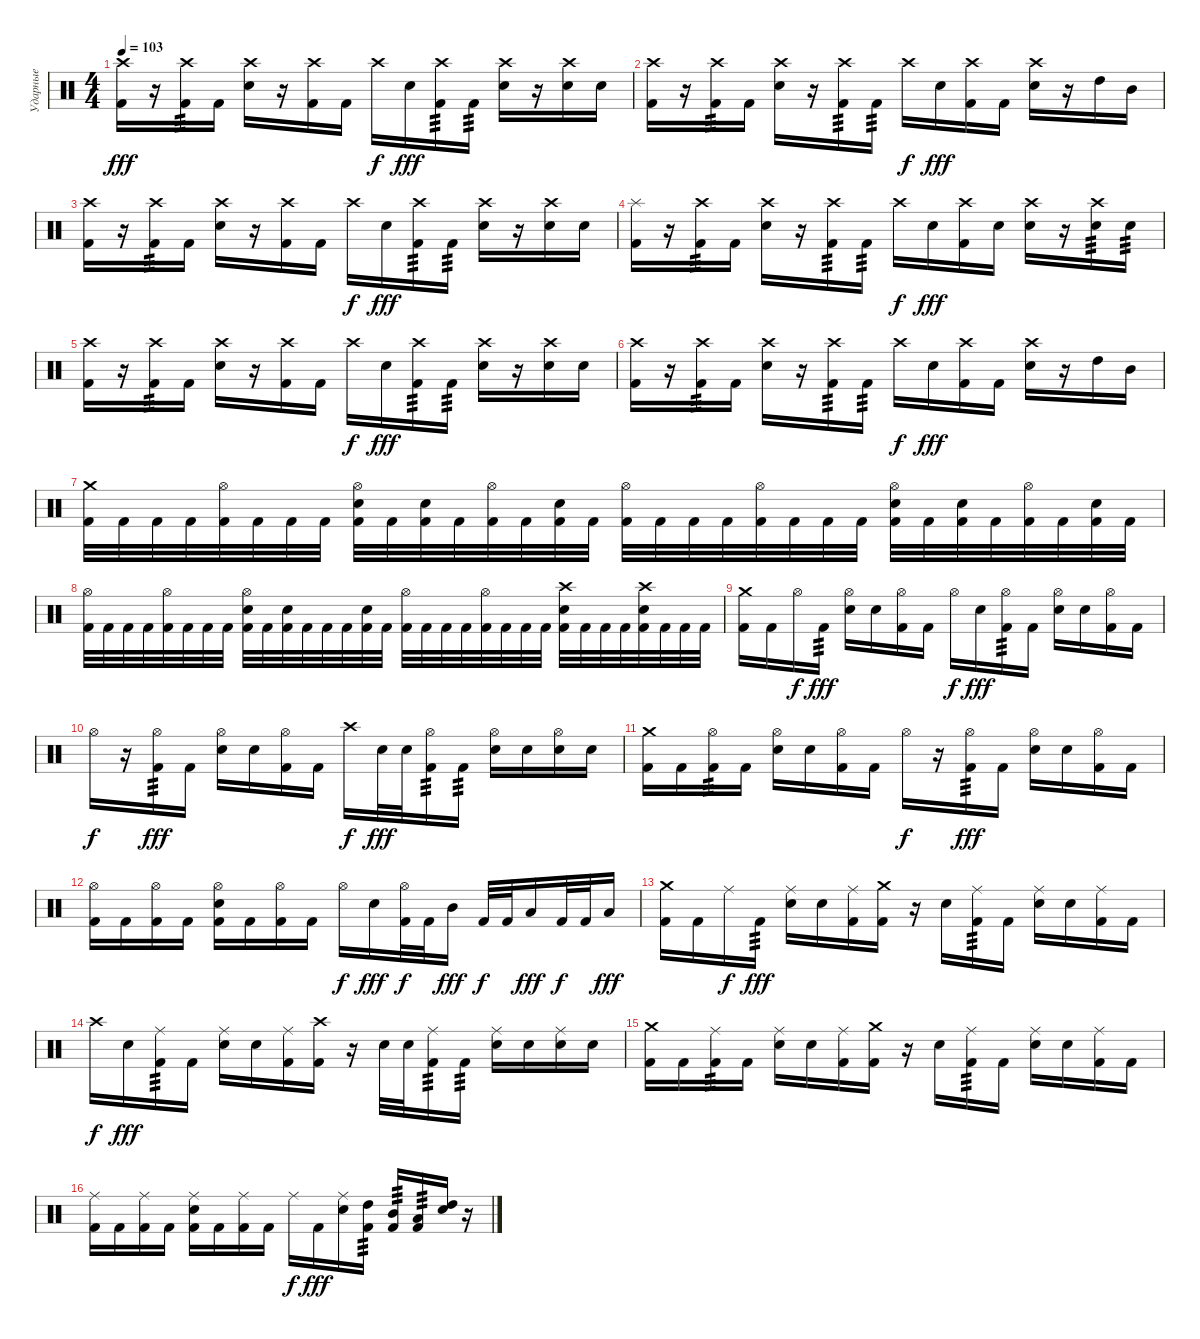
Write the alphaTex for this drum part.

\track ("Ударные" "Ударные") {instrument percussion}
\staff {score}
\articulation defaults
\ts (4 4)
\tempo 103
\clef neutral
\ks c
("Crash high (hit)" "Kick (hit) 2").16{dy fff} r.16 ("Crash high (hit)" "Kick (hit) 2").16{tp 3} "Kick (hit) 2".16 ("Crash high (hit)" "Snare (hit) 2").16 r.16 ("Crash high (hit)" "Kick (hit) 2").16 "Kick (hit) 2".16 "Crash high (hit)".16{dy f} "Snare (hit) 2".16{dy fff} ("Crash high (hit)" "Kick (hit) 2").16{tp 3} "Kick (hit) 2".16{tp 3} ("Crash high (hit)" "Snare (hit) 2").16 r.16 ("Crash high (hit)" "Snare (hit) 2").16 "Snare (hit) 2".16 |
("Crash high (hit)" "Kick (hit) 2").16 r.16 ("Crash high (hit)" "Kick (hit) 2").16{tp 3} "Kick (hit) 2".16 ("Crash high (hit)" "Snare (hit) 2").16 r.16 ("Crash high (hit)" "Kick (hit) 2").16{tp 3} "Kick (hit) 2".16{tp 3} "Crash high (hit)".16{dy f} "Snare (hit) 2".16{dy fff} ("Crash high (hit)" "Kick (hit) 2").16 "Kick (hit) 2".16 ("Crash high (hit)" "Snare (hit) 2").16 r.16 "High Tom (hit)".16 "Mid Tom (hit)".16 |
("Crash high (hit)" "Kick (hit) 2").16 r.16 ("Crash high (hit)" "Kick (hit) 2").16{tp 3} "Kick (hit) 2".16 ("Crash high (hit)" "Snare (hit) 2").16 r.16 ("Crash high (hit)" "Kick (hit) 2").16 "Kick (hit) 2".16 "Crash high (hit)".16{dy f} "Snare (hit) 2".16{dy fff} ("Crash high (hit)" "Kick (hit) 2").16{tp 3} "Kick (hit) 2".16{tp 3} ("Crash high (hit)" "Snare (hit) 2").16 r.16 ("Crash high (hit)" "Snare (hit) 2").16 "Snare (hit) 2".16 |
("Splash (hit)" "Kick (hit) 2").16 r.16 ("Crash high (hit)" "Kick (hit) 2").16{tp 3} "Kick (hit) 2".16 ("Crash high (hit)" "Snare (hit) 2").16 r.16 ("Crash high (hit)" "Kick (hit) 2").16{tp 3} "Kick (hit) 2".16{tp 3} "Crash high (hit)".16{dy f} "Snare (hit) 2".16{dy fff} ("Crash high (hit)" "Kick (hit) 2").16 "Snare (hit) 2".16 ("Crash high (hit)" "Snare (hit) 2").16 r.16 ("Crash high (hit)" "Snare (hit) 2").16{tp 3} "Snare (hit) 2".16{tp 3} |
("Crash high (hit)" "Kick (hit) 2").16 r.16 ("Crash high (hit)" "Kick (hit) 2").16{tp 3} "Kick (hit) 2".16 ("Crash high (hit)" "Snare (hit) 2").16 r.16 ("Crash high (hit)" "Kick (hit) 2").16 "Kick (hit) 2".16 "Crash high (hit)".16{dy f} "Snare (hit) 2".16{dy fff} ("Crash high (hit)" "Kick (hit) 2").16{tp 3} "Kick (hit) 2".16{tp 3} ("Crash high (hit)" "Snare (hit) 2").16 r.16 ("Crash high (hit)" "Snare (hit) 2").16 "Snare (hit) 2".16 |
("Crash high (hit)" "Kick (hit) 2").16 r.16 ("Crash high (hit)" "Kick (hit) 2").16{tp 3} "Kick (hit) 2".16 ("Crash high (hit)" "Snare (hit) 2").16 r.16 ("Crash high (hit)" "Kick (hit) 2").16{tp 3} "Kick (hit) 2".16{tp 3} "Crash high (hit)".16{dy f} "Snare (hit) 2".16{dy fff} ("Crash high (hit)" "Kick (hit) 2").16 "Kick (hit) 2".16 ("Crash high (hit)" "Snare (hit) 2").16 r.16 "High Tom (hit)".16 "Mid Tom (hit)".16 |
("Crash medium (hit)" "Kick (hit) 2").32 "Kick (hit) 2".32 "Kick (hit) 2".32 "Kick (hit) 2".32 ("Hi-Hat (open)" "Kick (hit) 2").32 "Kick (hit) 2".32 "Kick (hit) 2".32 "Kick (hit) 2".32 ("Hi-Hat (open)" "Snare (hit) 2" "Kick (hit) 2").32 "Kick (hit) 2".32 ("Snare (hit) 2" "Kick (hit) 2").32 "Kick (hit) 2".32 ("Hi-Hat (open)" "Kick (hit) 2").32 "Kick (hit) 2".32 ("Snare (hit) 2" "Kick (hit) 2").32 "Kick (hit) 2".32 ("Hi-Hat (open)" "Kick (hit) 2").32 "Kick (hit) 2".32 "Kick (hit) 2".32 "Kick (hit) 2".32 ("Hi-Hat (open)" "Kick (hit) 2").32 "Kick (hit) 2".32 "Kick (hit) 2".32 "Kick (hit) 2".32 ("Hi-Hat (open)" "Snare (hit) 2" "Kick (hit) 2").32 "Kick (hit) 2".32 ("Snare (hit) 2" "Kick (hit) 2").32 "Kick (hit) 2".32 ("Hi-Hat (open)" "Kick (hit) 2").32 "Kick (hit) 2".32 ("Snare (hit) 2" "Kick (hit) 2").32 "Kick (hit) 2".32 |
("Hi-Hat (open)" "Kick (hit) 2").32 "Kick (hit) 2".32 "Kick (hit) 2".32 "Kick (hit) 2".32 ("Hi-Hat (open)" "Kick (hit) 2").32 "Kick (hit) 2".32 "Kick (hit) 2".32 "Kick (hit) 2".32 ("Hi-Hat (open)" "Snare (hit) 2" "Kick (hit) 2").32 "Kick (hit) 2".32 ("Snare (hit) 2" "Kick (hit) 2").32 "Kick (hit) 2".32 "Kick (hit) 2".32 "Kick (hit) 2".32 ("Snare (hit) 2" "Kick (hit) 2").32 "Kick (hit) 2".32 ("Hi-Hat (open)" "Kick (hit) 2").32 "Kick (hit) 2".32 "Kick (hit) 2".32 "Kick (hit) 2".32 ("Hi-Hat (open)" "Kick (hit) 2").32 "Kick (hit) 2".32 "Kick (hit) 2".32 "Kick (hit) 2".32 ("Crash high (hit)" "Snare (hit) 2" "Kick (hit) 2").32 "Kick (hit) 2".32 "Kick (hit) 2".32 "Kick (hit) 2".32 ("Crash high (hit)" "Snare (hit) 2" "Kick (hit) 2").32 "Kick (hit) 2".32 "Kick (hit) 2".32 "Kick (hit) 2".32 |
("Crash medium (hit)" "Kick (hit) 2").16 "Kick (hit) 2".16 "Hi-Hat (open)".16{dy f} "Kick (hit) 2".16{tp 3 dy fff} ("Hi-Hat (open)" "Snare (hit) 2").16 "Snare (hit) 2".16 ("Hi-Hat (open)" "Kick (hit) 2").16 "Kick (hit) 2".16 "Hi-Hat (open)".16{dy f} "Snare (hit) 2".16{dy fff} ("Hi-Hat (open)" "Kick (hit) 2").16{tp 3} "Kick (hit) 2".16 ("Hi-Hat (open)" "Snare (hit) 2").16 "Snare (hit) 2".16 ("Hi-Hat (open)" "Kick (hit) 2").16 "Kick (hit) 2".16 |
"Hi-Hat (open)".16{dy f} r.16 ("Hi-Hat (open)" "Kick (hit) 2").16{tp 3 dy fff} "Kick (hit) 2".16 ("Hi-Hat (open)" "Snare (hit) 2").16 "Snare (hit) 2".16 ("Hi-Hat (open)" "Kick (hit) 2").16 "Kick (hit) 2".16 "Crash high (hit)".16{dy f} "Snare (hit) 2".32{dy fff} "Snare (hit) 2".32 ("Hi-Hat (open)" "Kick (hit) 2").16{tp 3} "Kick (hit) 2".16{tp 3} ("Hi-Hat (open)" "Snare (hit) 2").16 "Snare (hit) 2".16 ("Hi-Hat (open)" "Snare (hit) 2").16 "Snare (hit) 2".16 |
("Crash medium (hit)" "Kick (hit) 2").16 "Kick (hit) 2".16 ("Hi-Hat (open)" "Kick (hit) 2").16{tp 3} "Kick (hit) 2".16 ("Hi-Hat (open)" "Snare (hit) 2").16 "Snare (hit) 2".16 ("Hi-Hat (open)" "Kick (hit) 2").16 "Kick (hit) 2".16 "Hi-Hat (open)".16{dy f} r.16 ("Hi-Hat (open)" "Kick (hit) 2").16{tp 3 dy fff} "Kick (hit) 2".16 ("Hi-Hat (open)" "Snare (hit) 2").16 "Snare (hit) 2".16 ("Hi-Hat (open)" "Kick (hit) 2").16 "Kick (hit) 2".16 |
("Hi-Hat (open)" "Kick (hit) 2").16 "Kick (hit) 2".16 ("Hi-Hat (open)" "Kick (hit) 2").16 "Kick (hit) 2".16 ("Hi-Hat (open)" "Snare (hit) 2" "Kick (hit) 2").16 "Kick (hit) 2".16 ("Hi-Hat (open)" "Kick (hit) 2").16 "Kick (hit) 2".16 "Hi-Hat (open)".16{dy f} "Snare (hit) 2".16{dy fff} ("Hi-Hat (open)" "Kick (hit) 2").32{dy f} "Kick (hit) 2".32 "Mid Tom (hit)".16{dy fff} "Kick (hit) 2".32{dy f} "Kick (hit) 2".32 "Low Tom (hit)".16{dy fff} "Kick (hit) 2".32{dy f} "Kick (hit) 2".32 "Low Tom (hit)".16{dy fff} |
("Crash medium (hit)" "Kick (hit) 2").16 "Kick (hit) 2".16 "Ride (middle)".16{dy f} "Kick (hit) 2".16{tp 3 dy fff} ("Ride (middle)" "Snare (hit) 2").16 "Snare (hit) 2".16 ("Ride (middle)" "Kick (hit) 2").16 ("Crash medium (hit)" "Kick (hit) 2").16 r.16 "Snare (hit) 2".16 ("Ride (middle)" "Kick (hit) 2").16{tp 3} "Kick (hit) 2".16 ("Ride (middle)" "Snare (hit) 2").16 "Snare (hit) 2".16 ("Ride (middle)" "Kick (hit) 2").16 "Kick (hit) 2".16 |
"Crash high (hit)".16{dy f} "Snare (hit) 2".16{dy fff} ("Ride (middle)" "Kick (hit) 2").16{tp 3} "Kick (hit) 2".16 ("Ride (middle)" "Snare (hit) 2").16 "Snare (hit) 2".16 ("Ride (middle)" "Kick (hit) 2").16 ("Crash high (hit)" "Kick (hit) 2").16 r.16 "Snare (hit) 2".32 "Snare (hit) 2".32 ("Ride (middle)" "Kick (hit) 2").16{tp 3} "Kick (hit) 2".16{tp 3} ("Ride (middle)" "Snare (hit) 2").16 "Snare (hit) 2".16 ("Ride (middle)" "Snare (hit) 2").16 "Snare (hit) 2".16 |
("Crash medium (hit)" "Kick (hit) 2").16 "Kick (hit) 2".16 ("Ride (middle)" "Kick (hit) 2").16{tp 3} "Kick (hit) 2".16 ("Ride (middle)" "Snare (hit) 2").16 "Snare (hit) 2".16 ("Ride (middle)" "Kick (hit) 2").16 ("Crash medium (hit)" "Kick (hit) 2").16 r.16 "Snare (hit) 2".16 ("Ride (middle)" "Kick (hit) 2").16{tp 3} "Kick (hit) 2".16 ("Ride (middle)" "Snare (hit) 2").16 "Snare (hit) 2".16 ("Ride (middle)" "Kick (hit) 2").16 "Kick (hit) 2".16 |
("Ride (middle)" "Kick (hit) 2").16 "Kick (hit) 2".16 ("Ride (middle)" "Kick (hit) 2").16 "Kick (hit) 2".16 ("Ride (middle)" "Snare (hit) 2" "Kick (hit) 2").16 "Kick (hit) 2".16 ("Ride (middle)" "Kick (hit) 2").16 "Kick (hit) 2".16 "Ride (middle)".16{dy f} "Kick (hit) 2".16{dy fff} ("Ride (middle)" "Snare (hit) 2").16 ("High Tom (hit)" "Kick (hit) 2").16{tp 3} ("Mid Tom (hit)" "Kick (hit) 2").16{tp 3} ("Low Tom (hit)" "Kick (hit) 2").16{tp 3} ("High Tom (hit)" "Snare (hit) 2").16 r.16
